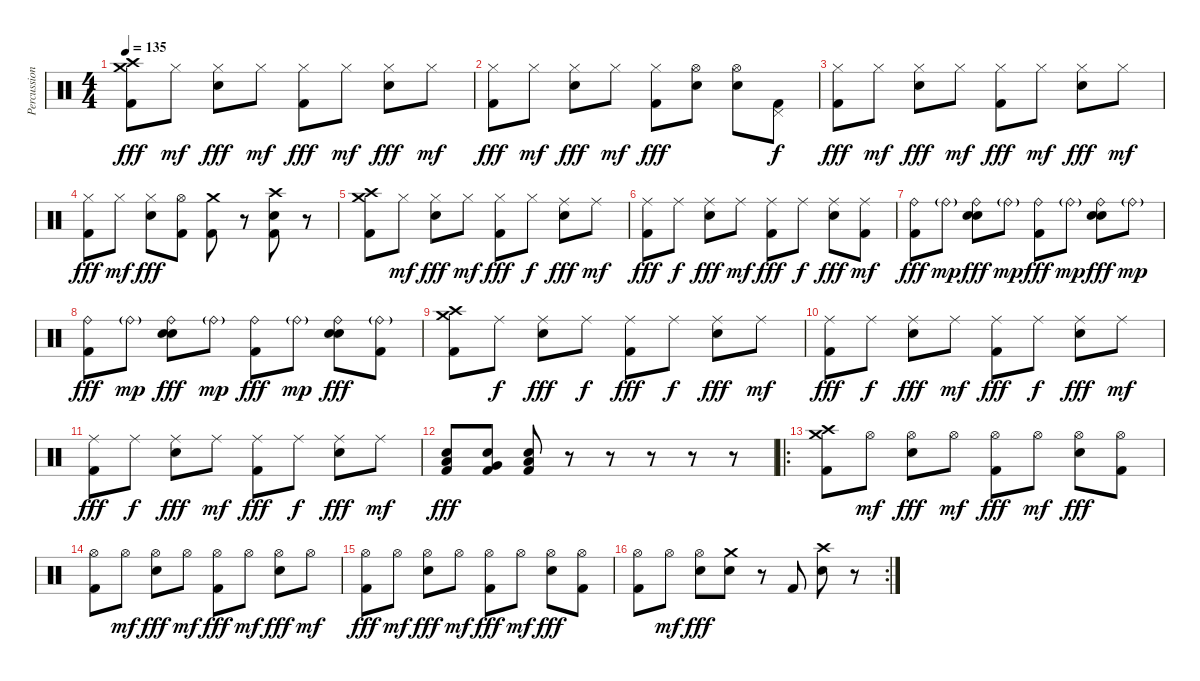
\track ("Percussions" "Percussion") {instrument percussion}
\staff {score}
\articulation defaults
\ts (4 4)
\tempo 135
\clef neutral
\ks c
("Crash medium (hit)" "Crash high (hit)" "Kick (hit) 2").8{dy fff} "Hi-Hat (closed)".8{dy mf} ("Hi-Hat (closed)" "Electric Snare (hit)").8{dy fff} "Hi-Hat (closed)".8{dy mf} ("Hi-Hat (closed)" "Kick (hit) 2").8{dy fff} "Hi-Hat (closed)".8{dy mf} ("Hi-Hat (closed)" "Electric Snare (hit)").8{dy fff} "Hi-Hat (closed)".8{dy mf} |
("Hi-Hat (closed)" "Kick (hit) 2").8{dy fff} "Hi-Hat (closed)".8{dy mf} ("Hi-Hat (closed)" "Electric Snare (hit)").8{dy fff} "Hi-Hat (closed)".8{dy mf} ("Hi-Hat (closed)" "Kick (hit) 2").8{dy fff} ("Hi-Hat (open)" "Electric Snare (hit)").8 ("Hi-Hat (open)" "Electric Snare (hit)").8 ("Pedal Hi-Hat (hit)" "Kick (hit) 2").8{dy f} |
("Hi-Hat (closed)" "Kick (hit) 2").8{dy fff} "Hi-Hat (closed)".8{dy mf} ("Hi-Hat (closed)" "Electric Snare (hit)").8{dy fff} "Hi-Hat (closed)".8{dy mf} ("Hi-Hat (closed)" "Kick (hit) 2").8{dy fff} "Hi-Hat (closed)".8{dy mf} ("Hi-Hat (closed)" "Electric Snare (hit)").8{dy fff} "Hi-Hat (closed)".8{dy mf} |
("Hi-Hat (closed)" "Kick (hit) 2").8{dy fff} "Hi-Hat (closed)".8{dy mf} ("Hi-Hat (closed)" "Electric Snare (hit)").8{dy fff} ("Hi-Hat (open)" "Kick (hit) 2").8 ("Crash medium (hit)" "Kick (hit) 2").8 r.8 ("Crash high (hit)" "Electric Snare (hit)" "Kick (hit) 2").8 r.8 |
("Crash medium (hit)" "Crash high (hit)" "Kick (hit) 2").8 "Hi-Hat (closed)".8{dy mf} ("Hi-Hat (closed)" "Electric Snare (hit)").8{dy fff} "Hi-Hat (closed)".8{dy mf} ("Hi-Hat (closed)" "Kick (hit) 2").8{dy fff} "Hi-Hat (closed)".8{dy f} ("Ride (middle)" "Electric Snare (hit)").8{dy fff} "Ride (middle)".8{dy mf} |
("Ride (middle)" "Kick (hit) 2").8{dy fff} "Ride (middle)".8{dy f} ("Ride (middle)" "Electric Snare (hit)").8{dy fff} "Ride (middle)".8{dy mf} ("Ride (middle)" "Kick (hit) 2").8{dy fff} "Ride (middle)".8{dy f} ("Ride (middle)" "Electric Snare (hit)").8{dy fff} ("Ride (middle)" "Kick (hit) 2").8{dy mf} |
("Ride (bell)" "Kick (hit) 2").8{dy fff} "Ride (bell)"{g}.8{dy mp} ("Ride (bell)" "Snare (hit) 2" "Electric Snare (hit)").8{dy fff} "Ride (bell)"{g}.8{dy mp} ("Ride (bell)" "Kick (hit) 2").8{dy fff} "Ride (bell)"{g}.8{dy mp} ("Ride (bell)" "Snare (hit) 2" "Electric Snare (hit)").8{dy fff} "Ride (bell)"{g}.8{dy mp} |
("Ride (bell)" "Kick (hit) 2").8{dy fff} "Ride (bell)"{g}.8{dy mp} ("Ride (bell)" "Snare (hit) 2" "Electric Snare (hit)").8{dy fff} "Ride (bell)"{g}.8{dy mp} ("Ride (bell)" "Kick (hit) 2").8{dy fff} "Ride (bell)"{g}.8{dy mp} ("Ride (bell)" "Snare (hit) 2" "Electric Snare (hit)").8{dy fff} ("Ride (bell)"{g} "Kick (hit) 2").8 |
("Crash medium (hit)" "Crash high (hit)" "Kick (hit) 2").8 "Ride (middle)".8{dy f} ("Ride (middle)" "Electric Snare (hit)").8{dy fff} "Ride (middle)".8{dy f} ("Ride (middle)" "Kick (hit) 2").8{dy fff} "Ride (middle)".8{dy f} ("Ride (middle)" "Electric Snare (hit)").8{dy fff} "Ride (middle)".8{dy mf} |
("Ride (middle)" "Kick (hit) 2").8{dy fff} "Ride (middle)".8{dy f} ("Ride (middle)" "Electric Snare (hit)").8{dy fff} "Ride (middle)".8{dy mf} ("Ride (middle)" "Kick (hit) 2").8{dy fff} "Ride (middle)".8{dy f} ("Ride (middle)" "Electric Snare (hit)").8{dy fff} "Ride (middle)".8{dy mf} |
("Ride (middle)" "Kick (hit) 2").8{dy fff} "Ride (middle)".8{dy f} ("Ride (middle)" "Electric Snare (hit)").8{dy fff} "Ride (middle)".8{dy mf} ("Ride (middle)" "Kick (hit) 2").8{dy fff} "Ride (middle)".8{dy f} ("Ride (middle)" "Electric Snare (hit)").8{dy fff} "Ride (middle)".8{dy mf} |
("Low Tom (hit)" "Electric Snare (hit)" "Kick (hit) 2").8{dy fff} ("Electric Snare (hit)" "Very Low Tom (hit)" "Kick (hit) 2").8 ("Electric Snare (hit)" "Low Floor Tom (hit)" "Kick (hit) 2").8 r.8 r.8 r.8 r.8 r.8 |
\ro
("Crash medium (hit)" "Crash high (hit)" "Kick (hit) 2").8 "Hi-Hat (open)".8{dy mf} ("Hi-Hat (open)" "Electric Snare (hit)").8{dy fff} "Hi-Hat (open)".8{dy mf} ("Hi-Hat (open)" "Kick (hit) 2").8{dy fff} "Hi-Hat (open)".8{dy mf} ("Hi-Hat (open)" "Electric Snare (hit)").8{dy fff} ("Hi-Hat (open)" "Kick (hit) 2").8 |
("Hi-Hat (open)" "Kick (hit) 2").8 "Hi-Hat (open)".8{dy mf} ("Hi-Hat (open)" "Electric Snare (hit)").8{dy fff} "Hi-Hat (open)".8{dy mf} ("Hi-Hat (open)" "Kick (hit) 2").8{dy fff} "Hi-Hat (open)".8{dy mf} ("Hi-Hat (open)" "Electric Snare (hit)").8{dy fff} "Hi-Hat (open)".8{dy mf} |
("Hi-Hat (open)" "Kick (hit) 2").8{dy fff} "Hi-Hat (open)".8{dy mf} ("Hi-Hat (open)" "Electric Snare (hit)").8{dy fff} "Hi-Hat (open)".8{dy mf} ("Hi-Hat (open)" "Kick (hit) 2").8{dy fff} "Hi-Hat (open)".8{dy mf} ("Hi-Hat (open)" "Electric Snare (hit)").8{dy fff} ("Hi-Hat (open)" "Kick (hit) 2").8 |
\rc 2
("Hi-Hat (open)" "Kick (hit) 2").8 "Hi-Hat (open)".8{dy mf} ("Hi-Hat (open)" "Electric Snare (hit)").8{dy fff} ("Crash medium (hit)" "Electric Snare (hit)").8 r.8 "Kick (hit) 2".8 ("Crash high (hit)" "Electric Snare (hit)").8 r.8
